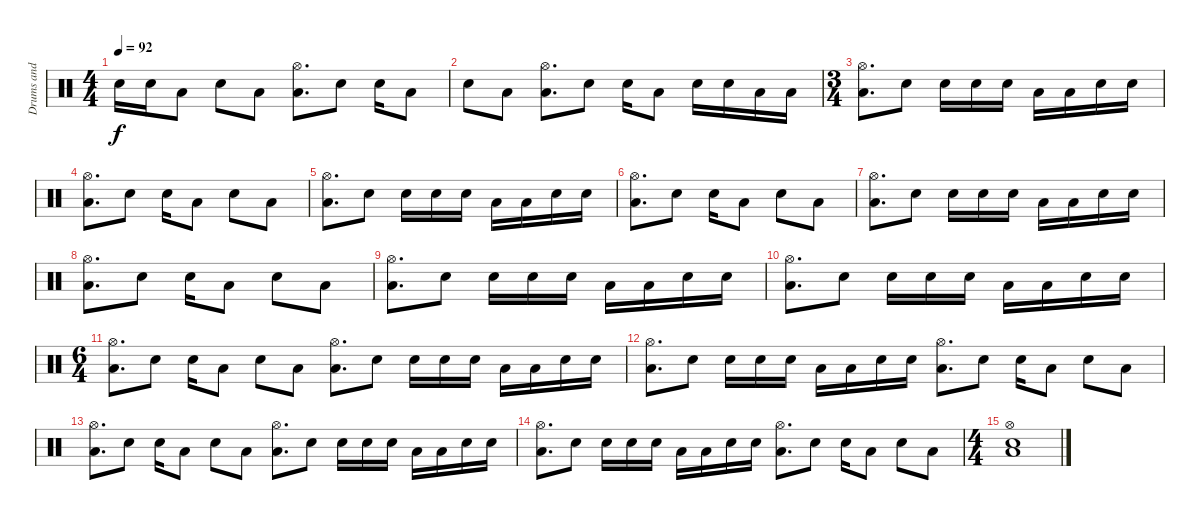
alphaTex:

\track ("Drums and Percussions" "Drums and ") {instrument percussion}
\staff {score}
\articulation defaults
\ts (4 4)
\tempo 92
\clef neutral
\ks c "Snare (hit)"{t}.16{dy f} "Electric Snare (hit)".16 "Low Floor Tom (hit)".8 "Electric Snare (hit)".8 "Low Floor Tom (hit)".8
("Hi-Hat (open)" "Low Floor Tom (hit)").8{d} "Electric Snare (hit)".8 "Electric Snare (hit)".16 "Low Floor Tom (hit)".8 |
"Electric Snare (hit)".8 "Low Floor Tom (hit)".8 ("Hi-Hat (open)" "Low Floor Tom (hit)").8{d} "Electric Snare (hit)".8 "Electric Snare (hit)".16 "Low Floor Tom (hit)".8 "Electric Snare (hit)".16 "Electric Snare (hit)".16 "Low Floor Tom (hit)".16 "Low Floor Tom (hit)".16 |
\ts (3 4)
("Hi-Hat (open)" "Low Floor Tom (hit)").8{d} "Electric Snare (hit)".8 "Electric Snare (hit)".16 "Electric Snare (hit)".16 "Electric Snare (hit)".16 "Low Floor Tom (hit)".16 "Low Floor Tom (hit)".16 "Electric Snare (hit)".16 "Electric Snare (hit)".16 |
("Hi-Hat (open)" "Low Floor Tom (hit)").8{d} "Electric Snare (hit)".8 "Electric Snare (hit)".16 "Low Floor Tom (hit)".8 "Electric Snare (hit)".8 "Low Floor Tom (hit)".8 |
("Hi-Hat (open)" "Low Floor Tom (hit)").8{d} "Electric Snare (hit)".8 "Electric Snare (hit)".16 "Electric Snare (hit)".16 "Electric Snare (hit)".16 "Low Floor Tom (hit)".16 "Low Floor Tom (hit)".16 "Electric Snare (hit)".16 "Electric Snare (hit)".16 |
("Hi-Hat (open)" "Low Floor Tom (hit)").8{d} "Electric Snare (hit)".8 "Electric Snare (hit)".16 "Low Floor Tom (hit)".8 "Electric Snare (hit)".8 "Low Floor Tom (hit)".8 |
("Hi-Hat (open)" "Low Floor Tom (hit)").8{d} "Electric Snare (hit)".8 "Electric Snare (hit)".16 "Electric Snare (hit)".16 "Electric Snare (hit)".16 "Low Floor Tom (hit)".16 "Low Floor Tom (hit)".16 "Electric Snare (hit)".16 "Electric Snare (hit)".16 |
("Hi-Hat (open)" "Low Floor Tom (hit)").8{d} "Electric Snare (hit)".8 "Electric Snare (hit)".16 "Low Floor Tom (hit)".8 "Electric Snare (hit)".8 "Low Floor Tom (hit)".8 |
("Hi-Hat (open)" "Low Floor Tom (hit)").8{d} "Electric Snare (hit)".8 "Electric Snare (hit)".16 "Electric Snare (hit)".16 "Electric Snare (hit)".16 "Low Floor Tom (hit)".16 "Low Floor Tom (hit)".16 "Electric Snare (hit)".16 "Electric Snare (hit)".16 |
("Hi-Hat (open)" "Low Floor Tom (hit)").8{d} "Electric Snare (hit)".8 "Electric Snare (hit)".16 "Electric Snare (hit)".16 "Electric Snare (hit)".16 "Low Floor Tom (hit)".16 "Low Floor Tom (hit)".16 "Electric Snare (hit)".16 "Electric Snare (hit)".16 |
\ts (6 4)
("Hi-Hat (open)" "Low Floor Tom (hit)").8{d} "Electric Snare (hit)".8 "Electric Snare (hit)".16 "Low Floor Tom (hit)".8 "Electric Snare (hit)".8 "Low Floor Tom (hit)".8 ("Hi-Hat (open)" "Low Floor Tom (hit)").8{d} "Electric Snare (hit)".8 "Electric Snare (hit)".16 "Electric Snare (hit)".16 "Electric Snare (hit)".16 "Low Floor Tom (hit)".16 "Low Floor Tom (hit)".16 "Electric Snare (hit)".16 "Electric Snare (hit)".16 |
("Hi-Hat (open)" "Low Floor Tom (hit)").8{d} "Electric Snare (hit)".8 "Electric Snare (hit)".16 "Electric Snare (hit)".16 "Electric Snare (hit)".16 "Low Floor Tom (hit)".16 "Low Floor Tom (hit)".16 "Electric Snare (hit)".16 "Electric Snare (hit)".16 ("Hi-Hat (open)" "Low Floor Tom (hit)").8{d} "Electric Snare (hit)".8 "Electric Snare (hit)".16 "Low Floor Tom (hit)".8 "Electric Snare (hit)".8 "Low Floor Tom (hit)".8 |
("Hi-Hat (open)" "Low Floor Tom (hit)").8{d} "Electric Snare (hit)".8 "Electric Snare (hit)".16 "Low Floor Tom (hit)".8 "Electric Snare (hit)".8 "Low Floor Tom (hit)".8 ("Hi-Hat (open)" "Low Floor Tom (hit)").8{d} "Electric Snare (hit)".8 "Electric Snare (hit)".16 "Electric Snare (hit)".16 "Electric Snare (hit)".16 "Low Floor Tom (hit)".16 "Low Floor Tom (hit)".16 "Electric Snare (hit)".16 "Electric Snare (hit)".16 |
("Hi-Hat (open)" "Low Floor Tom (hit)").8{d} "Electric Snare (hit)".8 "Electric Snare (hit)".16 "Electric Snare (hit)".16 "Electric Snare (hit)".16 "Low Floor Tom (hit)".16 "Low Floor Tom (hit)".16 "Electric Snare (hit)".16 "Electric Snare (hit)".16 ("Hi-Hat (open)" "Low Floor Tom (hit)").8{d} "Electric Snare (hit)".8 "Electric Snare (hit)".16 "Low Floor Tom (hit)".8 "Electric Snare (hit)".8 "Low Floor Tom (hit)".8 |
\ts (4 4)
("Hi-Hat (open)" "Electric Snare (hit)" "Low Floor Tom (hit)").1
